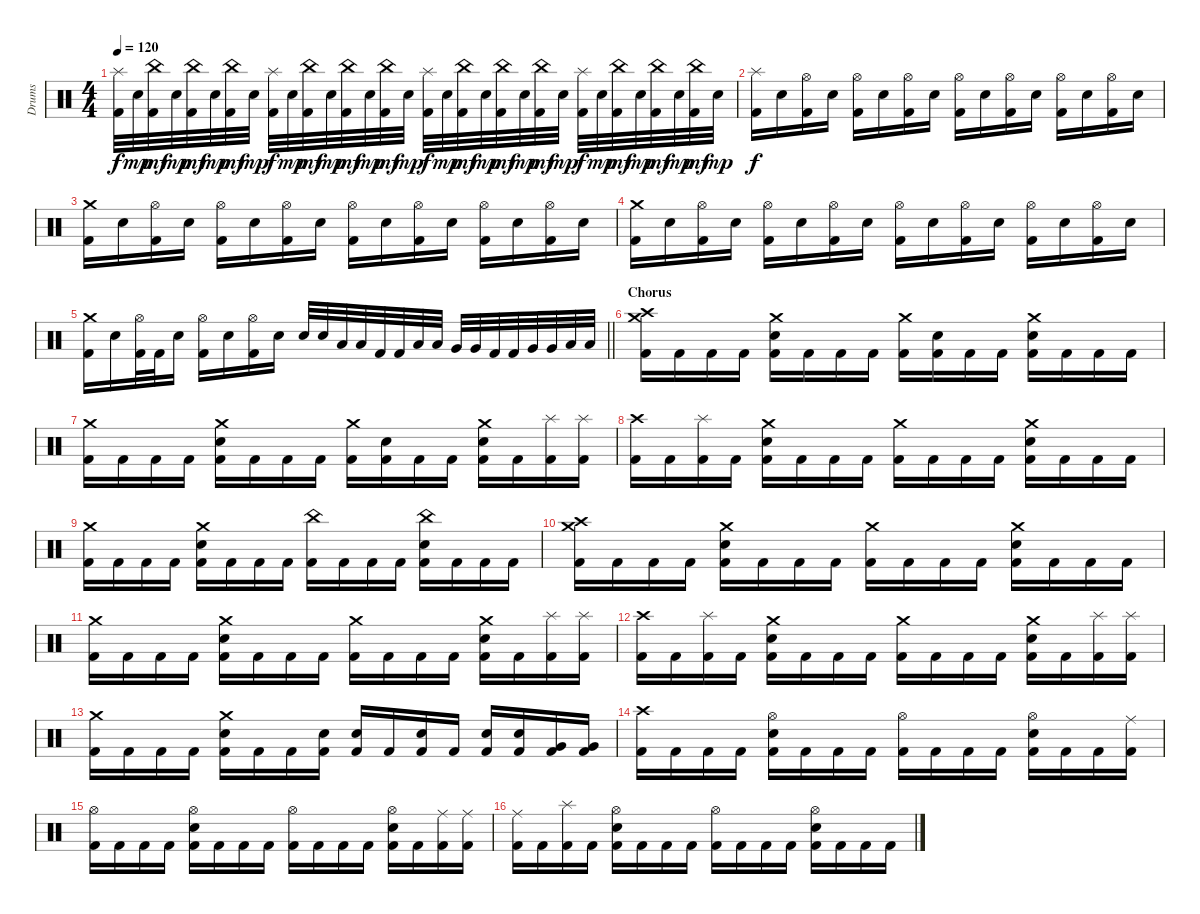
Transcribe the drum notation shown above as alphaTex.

\track ("Drums" "Drums") {instrument percussion}
\staff {score}
\articulation defaults
\ts (4 4)
\tempo 120
\clef neutral
\ks c
("Splash (hit)" "Kick (hit) 2").32{dy f} "Electric Snare (hit)".32{dy mp} ("China (hit)" "Kick (hit) 2").32{dy mf} "Electric Snare (hit)".32{dy mp} ("China (hit)" "Kick (hit) 2").32{dy mf} "Electric Snare (hit)".32{dy mp} ("China (hit)" "Kick (hit) 2").32{dy mf} "Electric Snare (hit)".32{dy mp} ("Splash (hit)" "Kick (hit) 2").32{dy f} "Electric Snare (hit)".32{dy mp} ("China (hit)" "Kick (hit) 2").32{dy mf} "Electric Snare (hit)".32{dy mp} ("China (hit)" "Kick (hit) 2").32{dy mf} "Electric Snare (hit)".32{dy mp} ("China (hit)" "Kick (hit) 2").32{dy mf} "Electric Snare (hit)".32{dy mp} ("Splash (hit)" "Kick (hit) 2").32{dy f} "Electric Snare (hit)".32{dy mp} ("China (hit)" "Kick (hit) 2").32{dy mf} "Electric Snare (hit)".32{dy mp} ("China (hit)" "Kick (hit) 2").32{dy mf} "Electric Snare (hit)".32{dy mp} ("China (hit)" "Kick (hit) 2").32{dy mf} "Electric Snare (hit)".32{dy mp} ("Splash (hit)" "Kick (hit) 2").32{dy f} "Electric Snare (hit)".32{dy mp} ("China (hit)" "Kick (hit) 2").32{dy mf} "Electric Snare (hit)".32{dy mp} ("China (hit)" "Kick (hit) 2").32{dy mf} "Electric Snare (hit)".32{dy mp} ("China (hit)" "Kick (hit) 2").32{dy mf} "Electric Snare (hit)".32{dy mp} |
("Splash (hit)" "Kick (hit) 2").16{dy f} "Electric Snare (hit)".16 ("Hi-Hat (open)" "Kick (hit) 2").16 "Electric Snare (hit)".16 ("Hi-Hat (open)" "Kick (hit) 2").16 "Electric Snare (hit)".16 ("Hi-Hat (open)" "Kick (hit) 2").16 "Electric Snare (hit)".16 ("Hi-Hat (open)" "Kick (hit) 2").16 "Electric Snare (hit)".16 ("Hi-Hat (open)" "Kick (hit) 2").16 "Electric Snare (hit)".16 ("Hi-Hat (open)" "Kick (hit) 2").16 "Electric Snare (hit)".16 ("Hi-Hat (open)" "Kick (hit) 2").16 "Electric Snare (hit)".16 |
("Crash medium (hit)" "Kick (hit) 2").16 "Electric Snare (hit)".16 ("Hi-Hat (open)" "Kick (hit) 2").16 "Electric Snare (hit)".16 ("Hi-Hat (open)" "Kick (hit) 2").16 "Electric Snare (hit)".16 ("Hi-Hat (open)" "Kick (hit) 2").16 "Electric Snare (hit)".16 ("Hi-Hat (open)" "Kick (hit) 2").16 "Electric Snare (hit)".16 ("Hi-Hat (open)" "Kick (hit) 2").16 "Electric Snare (hit)".16 ("Hi-Hat (open)" "Kick (hit) 2").16 "Electric Snare (hit)".16 ("Hi-Hat (open)" "Kick (hit) 2").16 "Electric Snare (hit)".16 |
("Crash medium (hit)" "Kick (hit) 2").16 "Electric Snare (hit)".16 ("Hi-Hat (open)" "Kick (hit) 2").16 "Electric Snare (hit)".16 ("Hi-Hat (open)" "Kick (hit) 2").16 "Electric Snare (hit)".16 ("Hi-Hat (open)" "Kick (hit) 2").16 "Electric Snare (hit)".16 ("Hi-Hat (open)" "Kick (hit) 2").16 "Electric Snare (hit)".16 ("Hi-Hat (open)" "Kick (hit) 2").16 "Electric Snare (hit)".16 ("Hi-Hat (open)" "Kick (hit) 2").16 "Electric Snare (hit)".16 ("Hi-Hat (open)" "Kick (hit) 2").16 "Electric Snare (hit)".16 |
\barLineRight lightlight
("Crash medium (hit)" "Kick (hit) 2").16 "Electric Snare (hit)".16 ("Hi-Hat (open)" "Kick (hit) 2").32 "Kick (hit) 2".32 "Electric Snare (hit)".16 ("Hi-Hat (open)" "Kick (hit) 2").16 "Electric Snare (hit)".16 ("Hi-Hat (open)" "Kick (hit) 2").16 "Electric Snare (hit)".16 "Electric Snare (hit)".32 "Electric Snare (hit)".32 "Low Tom (hit)".32 "Low Tom (hit)".32 "Kick (hit) 2".32 "Kick (hit) 2".32 "Low Tom (hit)".32 "Low Tom (hit)".32 "Very Low Tom (hit)".32 "Very Low Tom (hit)".32 "Kick (hit) 2".32 "Kick (hit) 2".32 "Very Low Tom (hit)".32 "Very Low Tom (hit)".32 "Low Floor Tom (hit)".32 "Low Floor Tom (hit)".32 |
\section ("" "Chorus")
("Crash medium (hit)" "Crash high (hit)" "Kick (hit) 2").16 "Kick (hit) 2".16 "Kick (hit) 2".16 "Kick (hit) 2".16 ("Crash medium (hit)" "Electric Snare (hit)" "Kick (hit) 2").16 "Kick (hit) 2".16 "Kick (hit) 2".16 "Kick (hit) 2".16 ("Crash medium (hit)" "Kick (hit) 2").16 ("Electric Snare (hit)" "Kick (hit) 2").16 "Kick (hit) 2".16 "Kick (hit) 2".16 ("Crash medium (hit)" "Electric Snare (hit)" "Kick (hit) 2").16 "Kick (hit) 2".16 "Kick (hit) 2".16 "Kick (hit) 2".16 |
("Crash medium (hit)" "Kick (hit) 2").16 "Kick (hit) 2".16 "Kick (hit) 2".16 "Kick (hit) 2".16 ("Crash medium (hit)" "Electric Snare (hit)" "Kick (hit) 2").16 "Kick (hit) 2".16 "Kick (hit) 2".16 "Kick (hit) 2".16 ("Crash medium (hit)" "Kick (hit) 2").16 ("Electric Snare (hit)" "Kick (hit) 2").16 "Kick (hit) 2".16 "Kick (hit) 2".16 ("Crash medium (hit)" "Electric Snare (hit)" "Kick (hit) 2").16 "Kick (hit) 2".16 ("Splash (hit)" "Kick (hit) 2").16 ("Splash (hit)" "Kick (hit) 2").16 |
("Crash high (hit)" "Kick (hit) 2").16 "Kick (hit) 2".16 ("Splash (hit)" "Kick (hit) 2").16 "Kick (hit) 2".16 ("Crash medium (hit)" "Electric Snare (hit)" "Kick (hit) 2").16 "Kick (hit) 2".16 "Kick (hit) 2".16 "Kick (hit) 2".16 ("Crash medium (hit)" "Kick (hit) 2").16 "Kick (hit) 2".16 "Kick (hit) 2".16 "Kick (hit) 2".16 ("Crash medium (hit)" "Electric Snare (hit)" "Kick (hit) 2").16 "Kick (hit) 2".16 "Kick (hit) 2".16 "Kick (hit) 2".16 |
("Crash medium (hit)" "Kick (hit) 2").16 "Kick (hit) 2".16 "Kick (hit) 2".16 "Kick (hit) 2".16 ("Crash medium (hit)" "Electric Snare (hit)" "Kick (hit) 2").16 "Kick (hit) 2".16 "Kick (hit) 2".16 "Kick (hit) 2".16 ("China (hit)" "Kick (hit) 2").16 "Kick (hit) 2".16 "Kick (hit) 2".16 "Kick (hit) 2".16 ("China (hit)" "Electric Snare (hit)" "Kick (hit) 2").16 "Kick (hit) 2".16 "Kick (hit) 2".16 "Kick (hit) 2".16 |
("Crash medium (hit)" "Crash high (hit)" "Kick (hit) 2").16 "Kick (hit) 2".16 "Kick (hit) 2".16 "Kick (hit) 2".16 ("Crash medium (hit)" "Electric Snare (hit)" "Kick (hit) 2").16 "Kick (hit) 2".16 "Kick (hit) 2".16 "Kick (hit) 2".16 ("Crash medium (hit)" "Kick (hit) 2").16 "Kick (hit) 2".16 "Kick (hit) 2".16 "Kick (hit) 2".16 ("Crash medium (hit)" "Electric Snare (hit)" "Kick (hit) 2").16 "Kick (hit) 2".16 "Kick (hit) 2".16 "Kick (hit) 2".16 |
("Crash medium (hit)" "Kick (hit) 2").16 "Kick (hit) 2".16 "Kick (hit) 2".16 "Kick (hit) 2".16 ("Crash medium (hit)" "Electric Snare (hit)" "Kick (hit) 2").16 "Kick (hit) 2".16 "Kick (hit) 2".16 "Kick (hit) 2".16 ("Crash medium (hit)" "Kick (hit) 2").16 "Kick (hit) 2".16 "Kick (hit) 2".16 "Kick (hit) 2".16 ("Crash medium (hit)" "Electric Snare (hit)" "Kick (hit) 2").16 "Kick (hit) 2".16 ("Splash (hit)" "Kick (hit) 2").16 ("Splash (hit)" "Kick (hit) 2").16 |
("Crash high (hit)" "Kick (hit) 2").16 "Kick (hit) 2".16 ("Splash (hit)" "Kick (hit) 2").16 "Kick (hit) 2".16 ("Crash medium (hit)" "Electric Snare (hit)" "Kick (hit) 2").16 "Kick (hit) 2".16 "Kick (hit) 2".16 "Kick (hit) 2".16 ("Crash medium (hit)" "Kick (hit) 2").16 "Kick (hit) 2".16 "Kick (hit) 2".16 "Kick (hit) 2".16 ("Crash medium (hit)" "Electric Snare (hit)" "Kick (hit) 2").16 "Kick (hit) 2".16 ("Splash (hit)" "Kick (hit) 2").16 ("Splash (hit)" "Kick (hit) 2").16 |
("Crash medium (hit)" "Kick (hit) 2").16 "Kick (hit) 2".16 "Kick (hit) 2".16 "Kick (hit) 2".16 ("Crash medium (hit)" "Electric Snare (hit)" "Kick (hit) 2").16 "Kick (hit) 2".16 "Kick (hit) 2".16 ("Electric Snare (hit)" "Kick (hit) 2").16 ("Electric Snare (hit)" "Kick (hit) 2").16 "Kick (hit) 2".16 ("Electric Snare (hit)" "Kick (hit) 2").16 "Kick (hit) 2".16 ("Electric Snare (hit)" "Kick (hit) 2").16 ("Electric Snare (hit)" "Kick (hit) 2").16 ("Very Low Tom (hit)" "Kick (hit) 2").16 ("Very Low Tom (hit)" "Kick (hit) 2").16 |
("Crash high (hit)" "Kick (hit) 2").16 "Kick (hit) 2".16 "Kick (hit) 2".16 "Kick (hit) 2".16 ("Hi-Hat (open)" "Electric Snare (hit)" "Kick (hit) 2").16 "Kick (hit) 2".16 "Kick (hit) 2".16 "Kick (hit) 2".16 ("Hi-Hat (open)" "Kick (hit) 2").16 "Kick (hit) 2".16 "Kick (hit) 2".16 "Kick (hit) 2".16 ("Hi-Hat (open)" "Electric Snare (hit)" "Kick (hit) 2").16 "Kick (hit) 2".16 "Kick (hit) 2".16 ("Ride (middle)" "Kick (hit) 2").16 |
("Hi-Hat (open)" "Kick (hit) 2").16 "Kick (hit) 2".16 "Kick (hit) 2".16 "Kick (hit) 2".16 ("Hi-Hat (open)" "Electric Snare (hit)" "Kick (hit) 2").16 "Kick (hit) 2".16 "Kick (hit) 2".16 "Kick (hit) 2".16 ("Hi-Hat (open)" "Kick (hit) 2").16 "Kick (hit) 2".16 "Kick (hit) 2".16 "Kick (hit) 2".16 ("Hi-Hat (open)" "Electric Snare (hit)" "Kick (hit) 2").16 "Kick (hit) 2".16 ("Ride (middle)" "Kick (hit) 2").16 ("Ride (middle)" "Kick (hit) 2").16 |
("Ride (middle)" "Kick (hit) 2").16 "Kick (hit) 2".16 ("Splash (hit)" "Kick (hit) 2").16 "Kick (hit) 2".16 ("Hi-Hat (open)" "Electric Snare (hit)" "Kick (hit) 2").16 "Kick (hit) 2".16 "Kick (hit) 2".16 "Kick (hit) 2".16 ("Hi-Hat (open)" "Kick (hit) 2").16 "Kick (hit) 2".16 "Kick (hit) 2".16 "Kick (hit) 2".16 ("Hi-Hat (open)" "Electric Snare (hit)" "Kick (hit) 2").16 "Kick (hit) 2".16 "Kick (hit) 2".16 "Kick (hit) 2".16
